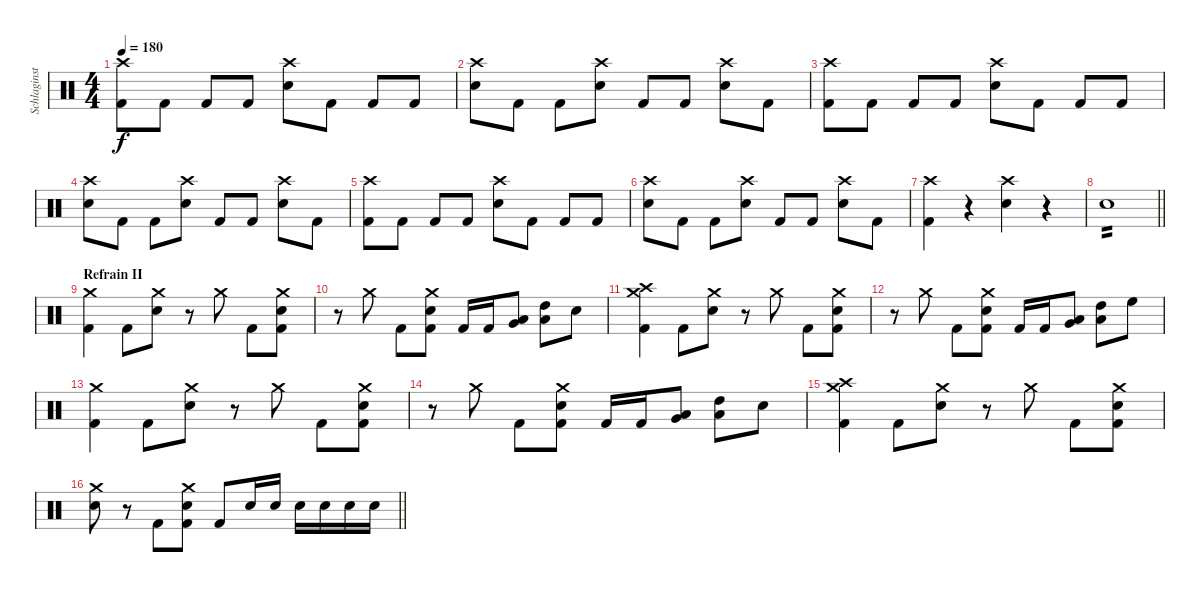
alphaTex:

\track ("Schlaginstrumente - Auswahl" "Schlaginst") {instrument percussion}
\staff {score}
\articulation defaults
\ts (4 4)
\tempo 180
\clef neutral
\ks c
("Crash high (hit)" "Kick (hit) 2").8{dy f} "Kick (hit) 2".8 "Kick (hit) 2".8 "Kick (hit) 2".8 ("Electric Snare (hit)" "Crash high (hit)").8 "Kick (hit) 2".8 "Kick (hit) 2".8 "Kick (hit) 2".8 |
("Crash high (hit)" "Electric Snare (hit)").8 "Kick (hit) 2".8 "Kick (hit) 2".8 ("Crash high (hit)" "Electric Snare (hit)").8 "Kick (hit) 2".8 "Kick (hit) 2".8 ("Electric Snare (hit)" "Crash high (hit)").8 "Kick (hit) 2".8 |
("Crash high (hit)" "Kick (hit) 2").8 "Kick (hit) 2".8 "Kick (hit) 2".8 "Kick (hit) 2".8 ("Electric Snare (hit)" "Crash high (hit)").8 "Kick (hit) 2".8 "Kick (hit) 2".8 "Kick (hit) 2".8 |
("Crash high (hit)" "Electric Snare (hit)").8 "Kick (hit) 2".8 "Kick (hit) 2".8 ("Crash high (hit)" "Electric Snare (hit)").8 "Kick (hit) 2".8 "Kick (hit) 2".8 ("Electric Snare (hit)" "Crash high (hit)").8 "Kick (hit) 2".8 |
("Crash high (hit)" "Kick (hit) 2").8 "Kick (hit) 2".8 "Kick (hit) 2".8 "Kick (hit) 2".8 ("Electric Snare (hit)" "Crash high (hit)").8 "Kick (hit) 2".8 "Kick (hit) 2".8 "Kick (hit) 2".8 |
("Crash high (hit)" "Electric Snare (hit)").8 "Kick (hit) 2".8 "Kick (hit) 2".8 ("Crash high (hit)" "Electric Snare (hit)").8 "Kick (hit) 2".8 "Kick (hit) 2".8 ("Electric Snare (hit)" "Crash high (hit)").8 "Kick (hit) 2".8 |
("Crash high (hit)" "Kick (hit) 2").4 r.4 ("Crash high (hit)" "Electric Snare (hit)").4 r.4 |
\barLineRight lightlight "Electric Snare (hit)".1{tp 2}
|
\section ("" "Refrain II")
("Crash medium (hit)" "Kick (hit) 2").4 "Kick (hit) 2".8 ("Crash medium (hit)" "Electric Snare (hit)").8 r.8 "Crash medium (hit)".8 "Kick (hit) 2".8 ("Crash medium (hit)" "Electric Snare (hit)" "Kick (hit) 2").8 |
r.8 "Crash medium (hit)".8 "Kick (hit) 2".8 ("Crash medium (hit)" "Electric Snare (hit)" "Kick (hit) 2").8 "Kick (hit) 2".16 "Kick (hit) 2".16 ("Very Low Tom (hit)" "Low Tom (hit)").8 ("High Tom (hit)" "Low Tom (hit)").8 "Electric Snare (hit)".8 |
("Crash medium (hit)" "Crash high (hit)" "Kick (hit) 2").4 "Kick (hit) 2".8 ("Crash medium (hit)" "Electric Snare (hit)").8 r.8 "Crash medium (hit)".8 "Kick (hit) 2".8 ("Crash medium (hit)" "Electric Snare (hit)" "Kick (hit) 2").8 |
r.8 "Crash medium (hit)".8 "Kick (hit) 2".8 ("Crash medium (hit)" "Electric Snare (hit)" "Kick (hit) 2").8 "Kick (hit) 2".16 "Kick (hit) 2".16 ("Very Low Tom (hit)" "Low Tom (hit)").8 ("High Tom (hit)" "Low Tom (hit)").8 "High Floor Tom (hit)".8 |
("Crash medium (hit)" "Kick (hit) 2").4 "Kick (hit) 2".8 ("Crash medium (hit)" "Electric Snare (hit)").8 r.8 "Crash medium (hit)".8 "Kick (hit) 2".8 ("Crash medium (hit)" "Electric Snare (hit)" "Kick (hit) 2").8 |
r.8 "Crash medium (hit)".8 "Kick (hit) 2".8 ("Crash medium (hit)" "Electric Snare (hit)" "Kick (hit) 2").8 "Kick (hit) 2".16 "Kick (hit) 2".16 ("Very Low Tom (hit)" "Low Tom (hit)").8 ("High Tom (hit)" "Low Tom (hit)").8 "Electric Snare (hit)".8 |
("Crash medium (hit)" "Crash high (hit)" "Kick (hit) 2").4 "Kick (hit) 2".8 ("Crash medium (hit)" "Electric Snare (hit)").8 r.8 "Crash medium (hit)".8 "Kick (hit) 2".8 ("Crash medium (hit)" "Electric Snare (hit)" "Kick (hit) 2").8 |
\barLineRight lightlight
("Crash medium (hit)" "Electric Snare (hit)").8 r.8 "Kick (hit) 2".8 ("Crash medium (hit)" "Electric Snare (hit)" "Kick (hit) 2").8 "Kick (hit) 2".8 "Electric Snare (hit)".16 "Electric Snare (hit)".16 "Electric Snare (hit)".16 "Electric Snare (hit)".16 "Electric Snare (hit)".16 "Electric Snare (hit)".16
